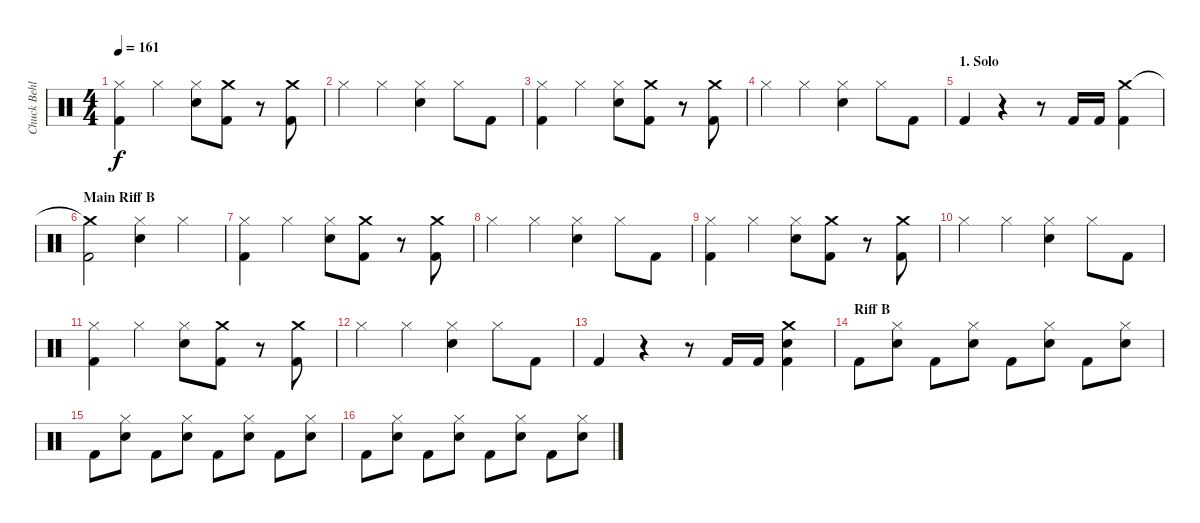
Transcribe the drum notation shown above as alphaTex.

\track ("Chuck Behler" "Chuck Behl") {instrument percussion}
\staff {score}
\articulation defaults
\ts (4 4)
\tempo 161
\clef neutral
\ks c
("Hi-Hat (closed)" "Kick (hit) 2").4{dy f} "Hi-Hat (closed)".4 ("Hi-Hat (closed)" "Snare (hit) 2").8 ("Crash medium (hit)" "Kick (hit) 2").8 r.8 ("Crash medium (hit)" "Kick (hit) 2").8 |
"Hi-Hat (closed)".4 "Hi-Hat (closed)".4 ("Hi-Hat (closed)" "Snare (hit) 2").4 "Hi-Hat (closed)".8 "Kick (hit) 2".8 |
("Hi-Hat (closed)" "Kick (hit) 2").4 "Hi-Hat (closed)".4 ("Hi-Hat (closed)" "Snare (hit) 2").8 ("Crash medium (hit)" "Kick (hit) 2").8 r.8 ("Crash medium (hit)" "Kick (hit) 2").8 |
"Hi-Hat (closed)".4 "Hi-Hat (closed)".4 ("Hi-Hat (closed)" "Snare (hit) 2").4 "Hi-Hat (closed)".8 "Kick (hit) 2".8 |
\section ("" "1. Solo")
"Kick (hit) 2".4 r.4 r.8 "Kick (hit) 2".16 "Kick (hit) 2".16 ("Crash medium (hit)" "Kick (hit) 2").4 |
\section ("" "Main Riff B")
("Crash medium (hit)"{t} "Kick (hit) 2").2 ("Hi-Hat (closed)" "Snare (hit) 2").4 "Hi-Hat (closed)".4 |
("Hi-Hat (closed)" "Kick (hit) 2").4 "Hi-Hat (closed)".4 ("Hi-Hat (closed)" "Snare (hit) 2").8 ("Crash medium (hit)" "Kick (hit) 2").8 r.8 ("Crash medium (hit)" "Kick (hit) 2").8 |
"Hi-Hat (closed)".4 "Hi-Hat (closed)".4 ("Hi-Hat (closed)" "Snare (hit) 2").4 "Hi-Hat (closed)".8 "Kick (hit) 2".8 |
("Hi-Hat (closed)" "Kick (hit) 2").4 "Hi-Hat (closed)".4 ("Hi-Hat (closed)" "Snare (hit) 2").8 ("Crash medium (hit)" "Kick (hit) 2").8 r.8 ("Crash medium (hit)" "Kick (hit) 2").8 |
"Hi-Hat (closed)".4 "Hi-Hat (closed)".4 ("Hi-Hat (closed)" "Snare (hit) 2").4 "Hi-Hat (closed)".8 "Kick (hit) 2".8 |
("Hi-Hat (closed)" "Kick (hit) 2").4 "Hi-Hat (closed)".4 ("Hi-Hat (closed)" "Snare (hit) 2").8 ("Crash medium (hit)" "Kick (hit) 2").8 r.8 ("Crash medium (hit)" "Kick (hit) 2").8 |
"Hi-Hat (closed)".4 "Hi-Hat (closed)".4 ("Hi-Hat (closed)" "Snare (hit) 2").4 "Hi-Hat (closed)".8 "Kick (hit) 2".8 |
"Kick (hit) 2".4 r.4 r.8 "Kick (hit) 2".16 "Kick (hit) 2".16 ("Crash medium (hit)" "Snare (hit) 2" "Kick (hit) 2").4 |
\section ("" "Riff B")
"Kick (hit) 2".8 ("Hi-Hat (closed)" "Snare (hit) 2").8 "Kick (hit) 2".8 ("Hi-Hat (closed)" "Snare (hit) 2").8 "Kick (hit) 2".8 ("Hi-Hat (closed)" "Snare (hit) 2").8 "Kick (hit) 2".8 ("Hi-Hat (closed)" "Snare (hit) 2").8 |
"Kick (hit) 2".8 ("Hi-Hat (closed)" "Snare (hit) 2").8 "Kick (hit) 2".8 ("Hi-Hat (closed)" "Snare (hit) 2").8 "Kick (hit) 2".8 ("Hi-Hat (closed)" "Snare (hit) 2").8 "Kick (hit) 2".8 ("Hi-Hat (closed)" "Snare (hit) 2").8 |
"Kick (hit) 2".8 ("Hi-Hat (closed)" "Snare (hit) 2").8 "Kick (hit) 2".8 ("Hi-Hat (closed)" "Snare (hit) 2").8 "Kick (hit) 2".8 ("Hi-Hat (closed)" "Snare (hit) 2").8 "Kick (hit) 2".8 ("Hi-Hat (closed)" "Snare (hit) 2").8
